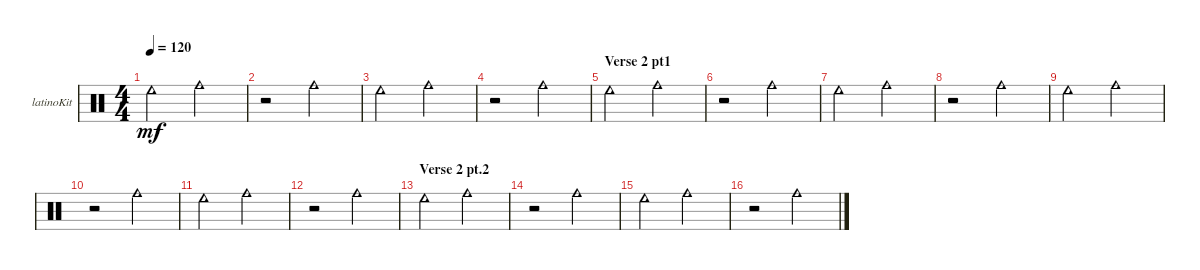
\defaultSystemsLayout 4
\bracketExtendMode groupsimilarinstruments
\firstSystemTrackNameOrientation horizontal
\otherSystemsTrackNameOrientation horizontal
\track ("Kit-Latino" "latinoKit") {instrument percussion}
\staff {score}
\articulation defaults
\ts (4 4)
\tempo 120
\clef neutral
\scale
0.333333
\ks c "Cowbell low (hit)".2{dy mf} "Cowbell medium (hit)".2
|
\scale
0.333333 r.2 "Cowbell medium (hit)".2 |
\scale
0.333333 "Cowbell low (hit)".2 "Cowbell medium (hit)".2 |
\scale
0.333333 r.2 "Cowbell medium (hit)".2 |
\section ("" "Verse 2 pt1")
\scale
0.333333 "Cowbell low (hit)".2 "Cowbell medium (hit)".2 |
\scale
0.333333 r.2 "Cowbell medium (hit)".2 |
\scale
0.333333 "Cowbell low (hit)".2 "Cowbell medium (hit)".2 |
\scale
0.333333 r.2 "Cowbell medium (hit)".2 |
\scale
0.333333 "Cowbell low (hit)".2 "Cowbell medium (hit)".2 |
\scale
0.333333 r.2 "Cowbell medium (hit)".2 |
\scale
0.333333 "Cowbell low (hit)".2 "Cowbell medium (hit)".2 |
\scale
0.333333 r.2 "Cowbell medium (hit)".2 |
\section ("" "Verse 2 pt.2")
\scale
0.333333 "Cowbell low (hit)".2 "Cowbell medium (hit)".2 |
\scale
0.333333 r.2 "Cowbell medium (hit)".2 |
\scale
0.333333 "Cowbell low (hit)".2 "Cowbell medium (hit)".2 |
\scale
0.333333 r.2 "Cowbell medium (hit)".2
